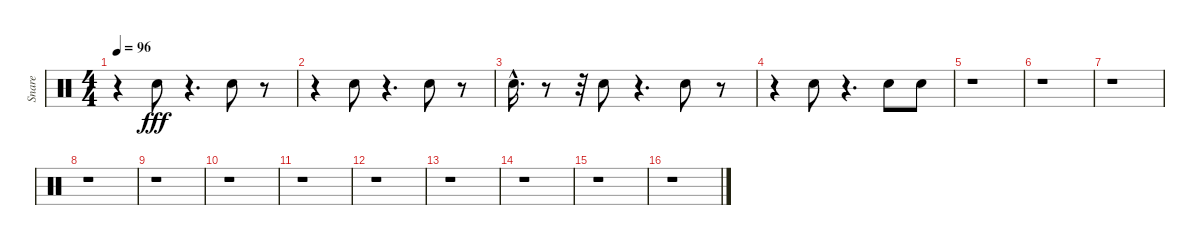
\track ("Snare" "Snare") {instrument percussion}
\staff {score}
\articulation defaults
\ts (4 4)
\tempo 96
\clef neutral
\ks c
r.4{dy fff} "Snare (hit) 2".8 r.4{d} "Snare (hit) 2".8 r.8 |
r.4 "Snare (hit) 2".8 r.4{d} "Snare (hit) 2".8 r.8 |
"Snare (hit) 2"{hac}.16{d} r.8 r.32 "Snare (hit) 2".8 r.4{d} "Snare (hit) 2".8 r.8 |
r.4 "Snare (hit) 2".8 r.4{d} "Snare (hit) 2".8 "Snare (hit) 2".8 |
r.1 |
r.1 |
r.1 |
r.1 |
r.1 |
r.1 |
r.1 |
r.1 |
r.1 |
r.1 |
r.1 |
r.1
